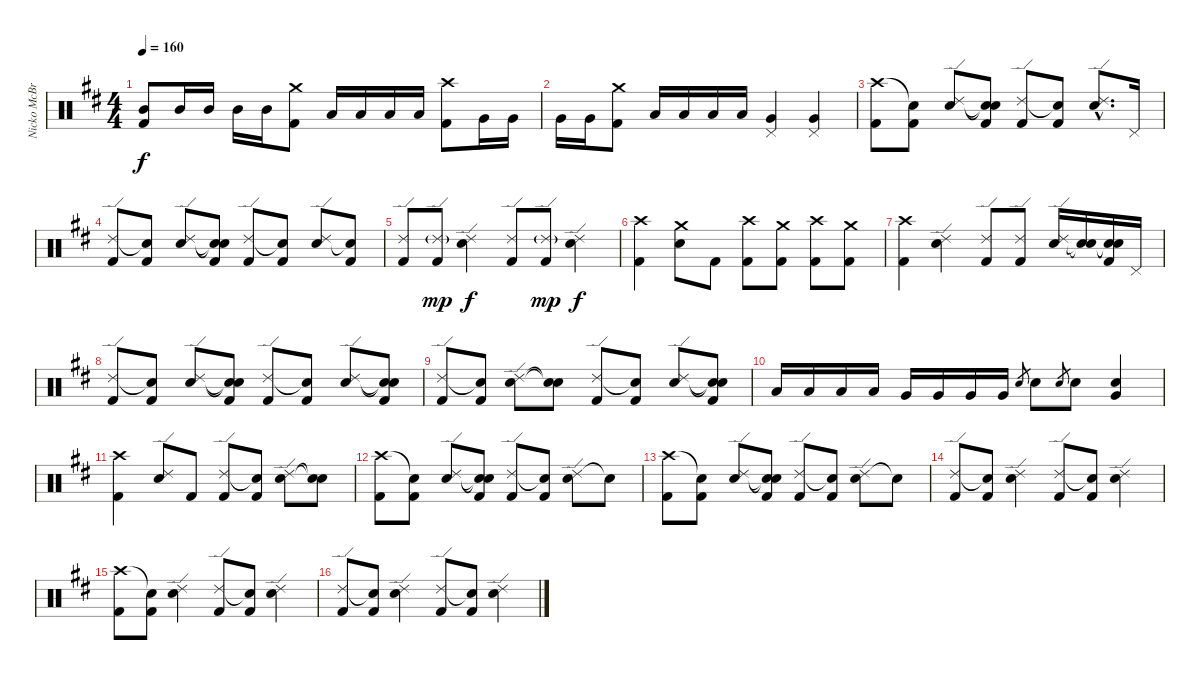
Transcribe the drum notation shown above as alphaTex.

\track ("Nicko McBrain" "Nicko McBr") {instrument percussion}
\staff {score}
\articulation defaults
\ts (4 4)
\tempo 160
\clef neutral
\ks d
("Mid Tom (hit)" "Kick (hit) 2").8{dy f} "Mid Tom (hit)".16 "Mid Tom (hit)".16 "Mid Tom (hit)".16 "Mid Tom (hit)".16 ("Crash medium (hit)" "Kick (hit) 2").8 "Low Tom (hit)".16 "Low Tom (hit)".16 "Low Tom (hit)".16 "Low Tom (hit)".16 ("Crash high (hit)" "Kick (hit) 2").8 "Very Low Tom (hit)".16 "Very Low Tom (hit)".16 |
"Very Low Tom (hit)".16 "Very Low Tom (hit)".16 ("Crash medium (hit)" "Kick (hit) 2").8 "Low Floor Tom (hit)".16 "Low Floor Tom (hit)".16 "Low Floor Tom (hit)".16 "Low Floor Tom (hit)".16 ("Very Low Tom (hit)" "Pedal Hi-Hat (hit)").4 ("Very Low Tom (hit)" "Pedal Hi-Hat (hit)").4 |
("Crash high (hit)" "Kick (hit) 2").8 ("Snare (hit)"{t} "Kick (hit) 2").8 ("Ride (edge) 2" "Electric Snare (hit)").8 ("Snare (hit)"{t} "Snare (hit)"{t} "Kick (hit) 2").8 ("Ride (edge) 2" "Kick (hit) 2").8 ("Snare (hit)"{t} "Kick (hit) 2").8 ("Ride (edge) 2"{hac} "Electric Snare (hit)"{hac}).8{d} "Pedal Hi-Hat (hit)".16 |
("Ride (edge) 2" "Kick (hit) 2").8 ("Snare (hit)"{t} "Kick (hit) 2").8 ("Ride (edge) 2" "Electric Snare (hit)").8 ("Snare (hit)"{t} "Snare (hit)"{t} "Kick (hit) 2").8 ("Ride (edge) 2" "Kick (hit) 2").8 ("Snare (hit)"{t} "Kick (hit) 2").8 ("Ride (edge) 2" "Electric Snare (hit)").8 ("Snare (hit)"{t} "Kick (hit) 2").8 |
("Ride (edge) 2" "Kick (hit) 2").8 ("Ride (edge) 2"{g} "Kick (hit) 2").8{dy mp} ("Ride (edge) 2" "Electric Snare (hit)").4{dy f} ("Ride (edge) 2" "Kick (hit) 2").8 ("Ride (edge) 2"{g} "Kick (hit) 2").8{dy mp} ("Ride (edge) 2" "Electric Snare (hit)").4{dy f} |
("Crash high (hit)" "Kick (hit) 2").4 ("Crash medium (hit)" "Electric Snare (hit)").8 "Kick (hit) 2".8 ("Crash high (hit)" "Kick (hit) 2").8 ("Crash medium (hit)" "Kick (hit) 2").8 ("Crash high (hit)" "Kick (hit) 2").8 ("Crash medium (hit)" "Kick (hit) 2").8 |
("Crash high (hit)" "Kick (hit) 2").4 ("Ride (edge) 2" "Electric Snare (hit)").4 ("Ride (edge) 2" "Kick (hit) 2").8 ("Ride (edge) 2" "Kick (hit) 2").8 ("Ride (edge) 2" "Electric Snare (hit)").16 ("Snare (hit)"{t} "Snare (hit)"{t}).16 ("Snare (hit)"{t} "Snare (hit)"{t} "Kick (hit) 2").16 "Pedal Hi-Hat (hit)".16 |
("Ride (edge) 2" "Kick (hit) 2").8 ("Snare (hit)"{t} "Kick (hit) 2").8 ("Ride (edge) 2" "Electric Snare (hit)").8 ("Snare (hit)"{t} "Snare (hit)"{t} "Kick (hit) 2").8 ("Ride (edge) 2" "Kick (hit) 2").8 ("Snare (hit)"{t} "Kick (hit) 2").8 ("Ride (edge) 2" "Electric Snare (hit)").8 ("Snare (hit)"{t} "Snare (hit)"{t} "Kick (hit) 2").8 |
("Ride (edge) 2" "Kick (hit) 2").8 ("Snare (hit)"{t} "Kick (hit) 2").8 ("Ride (edge) 2" "Electric Snare (hit)").8 ("Snare (hit)"{t} "Snare (hit)"{t}).8 ("Ride (edge) 2" "Kick (hit) 2").8 ("Snare (hit)"{t} "Kick (hit) 2").8 ("Ride (edge) 2" "Electric Snare (hit)").8 ("Snare (hit)"{t} "Snare (hit)"{t} "Kick (hit) 2").8 |
"Low Tom (hit)".16 "Low Tom (hit)".16 "Low Tom (hit)".16 "Low Tom (hit)".16 "Very Low Tom (hit)".16 "Very Low Tom (hit)".16 "Very Low Tom (hit)".16 "Very Low Tom (hit)".16 "Electric Snare (hit)".8{gr} "Electric Snare (hit)".8 "Electric Snare (hit)".8{gr} "Electric Snare (hit)".8 ("Very Low Tom (hit)" "Electric Snare (hit)").4 |
("Crash high (hit)" "Kick (hit) 2").4 ("Ride (edge) 2" "Electric Snare (hit)").8 "Kick (hit) 2".8 ("Ride (edge) 2" "Kick (hit) 2").8 ("Snare (hit)"{t} "Kick (hit) 2").8 ("Ride (edge) 2" "Electric Snare (hit)").8 ("Snare (hit)"{t} "Snare (hit)"{t}).8 |
("Crash high (hit)" "Kick (hit) 2").8 ("Snare (hit)"{t} "Kick (hit) 2").8 ("Ride (edge) 2" "Electric Snare (hit)").8 ("Snare (hit)"{t} "Snare (hit)"{t} "Kick (hit) 2").8 ("Ride (edge) 2" "Kick (hit) 2").8 ("Snare (hit)"{t} "Kick (hit) 2").8 ("Ride (edge) 2" "Electric Snare (hit)").8 "Snare (hit)"{t}.8 |
("Crash high (hit)" "Kick (hit) 2").8 ("Snare (hit)"{t} "Kick (hit) 2").8 ("Ride (edge) 2" "Electric Snare (hit)").8 ("Snare (hit)"{t} "Snare (hit)"{t} "Kick (hit) 2").8 ("Ride (edge) 2" "Kick (hit) 2").8 ("Snare (hit)"{t} "Kick (hit) 2").8 ("Ride (edge) 2" "Electric Snare (hit)").8 "Snare (hit)"{t}.8 |
("Ride (edge) 2" "Kick (hit) 2").8 ("Snare (hit)"{t} "Kick (hit) 2").8 ("Ride (edge) 2" "Electric Snare (hit)").4 ("Ride (edge) 2" "Kick (hit) 2").8 ("Snare (hit)"{t} "Kick (hit) 2").8 ("Ride (edge) 2" "Electric Snare (hit)").4 |
("Crash high (hit)" "Kick (hit) 2").8 ("Snare (hit)"{t} "Kick (hit) 2").8 ("Ride (edge) 2" "Electric Snare (hit)").4 ("Ride (edge) 2" "Kick (hit) 2").8 ("Snare (hit)"{t} "Kick (hit) 2").8 ("Ride (edge) 2" "Electric Snare (hit)").4 |
("Ride (edge) 2" "Kick (hit) 2").8 ("Snare (hit)"{t} "Kick (hit) 2").8 ("Ride (edge) 2" "Electric Snare (hit)").4 ("Ride (edge) 2" "Kick (hit) 2").8 ("Snare (hit)"{t} "Kick (hit) 2").8 ("Ride (edge) 2" "Electric Snare (hit)").4
